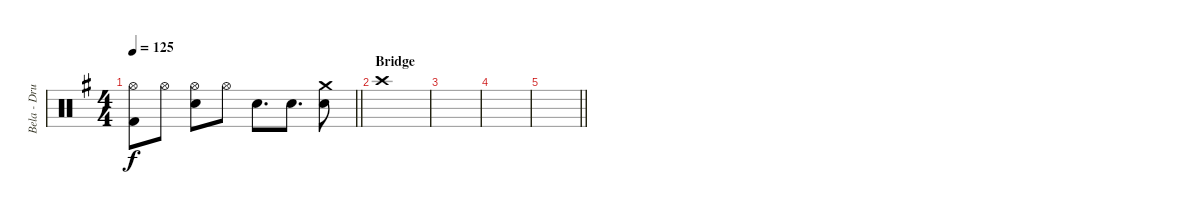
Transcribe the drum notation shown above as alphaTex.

\track ("Bela - Drums" "Bela - Dru") {instrument percussion}
\staff {score}
\articulation defaults
\ts (4 4)
\tempo 125
\clef neutral
\barLineRight lightlight
\ks g
("Hi-Hat (open)" "Kick (hit) 2").8{dy f} "Hi-Hat (open)".8 ("Hi-Hat (open)" "Snare (hit) 2").8 "Hi-Hat (open)".8 "Snare (hit) 2".8{d} "Snare (hit) 2".8{d} ("Crash medium (hit)" "Snare (hit) 2").8 |
\section ("" "Bridge")
"Crash high (hit)".1 |
|
|
\barLineRight lightlight
